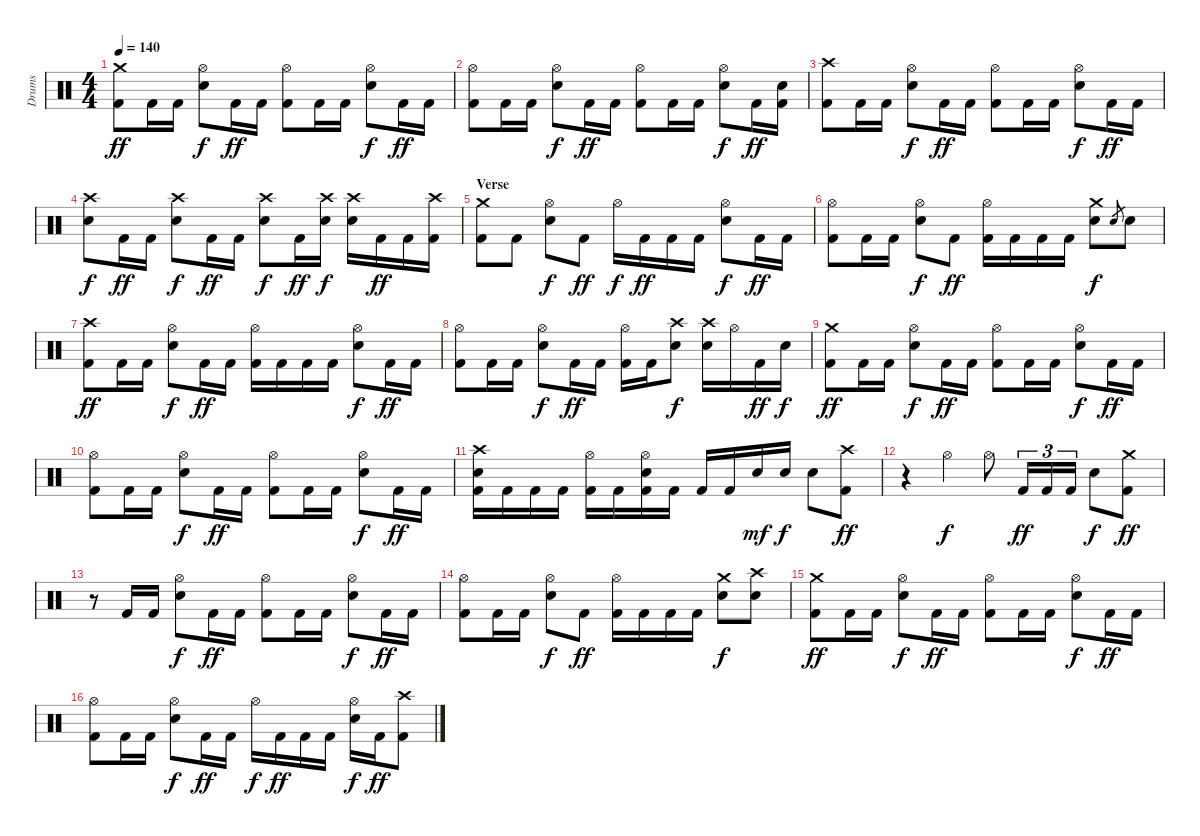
\track ("Drums" "Drums") {instrument percussion}
\staff {score}
\articulation defaults
\ts (4 4)
\tempo 140
\clef neutral
\ks c
("Crash medium (hit)" "Kick (hit) 2").8{dy ff} "Kick (hit) 2".16 "Kick (hit) 2".16 ("Hi-Hat (open)" "Snare (hit) 2").8{dy f} "Kick (hit) 2".16{dy ff} "Kick (hit) 2".16 ("Hi-Hat (open)" "Kick (hit) 2").8 "Kick (hit) 2".16 "Kick (hit) 2".16 ("Hi-Hat (open)" "Snare (hit) 2").8{dy f} "Kick (hit) 2".16{dy ff} "Kick (hit) 2".16 |
("Hi-Hat (open)" "Kick (hit) 2").8 "Kick (hit) 2".16 "Kick (hit) 2".16 ("Hi-Hat (open)" "Snare (hit) 2").8{dy f} "Kick (hit) 2".16{dy ff} "Kick (hit) 2".16 ("Hi-Hat (open)" "Kick (hit) 2").8 "Kick (hit) 2".16 "Kick (hit) 2".16 ("Hi-Hat (open)" "Snare (hit) 2").8{dy f} "Kick (hit) 2".16{dy ff} ("Snare (hit) 2" "Kick (hit) 2").16 |
("Crash high (hit)" "Kick (hit) 2").8 "Kick (hit) 2".16 "Kick (hit) 2".16 ("Hi-Hat (open)" "Snare (hit) 2").8{dy f} "Kick (hit) 2".16{dy ff} "Kick (hit) 2".16 ("Hi-Hat (open)" "Kick (hit) 2").8 "Kick (hit) 2".16 "Kick (hit) 2".16 ("Hi-Hat (open)" "Snare (hit) 2").8{dy f} "Kick (hit) 2".16{dy ff} "Kick (hit) 2".16 |
("Crash high (hit)" "Snare (hit) 2").8{dy f} "Kick (hit) 2".16{dy ff} "Kick (hit) 2".16 ("Crash high (hit)" "Snare (hit) 2").8{dy f} "Kick (hit) 2".16{dy ff} "Kick (hit) 2".16 ("Crash high (hit)" "Snare (hit) 2").8{dy f} "Kick (hit) 2".16{dy ff} ("Crash high (hit)" "Snare (hit) 2").16{dy f} ("Crash high (hit)" "Snare (hit) 2").16 "Kick (hit) 2".16{dy ff} "Kick (hit) 2".16 ("Crash high (hit)" "Kick (hit) 2").16 |
\section ("" "Verse")
("Crash medium (hit)" "Kick (hit) 2").8 "Kick (hit) 2".8 ("Hi-Hat (open)" "Snare (hit) 2").8{dy f} "Kick (hit) 2".8{dy ff} "Hi-Hat (open)".16{dy f} "Kick (hit) 2".16{dy ff} "Kick (hit) 2".16 "Kick (hit) 2".16 ("Hi-Hat (open)" "Snare (hit) 2").8{dy f} "Kick (hit) 2".16{dy ff} "Kick (hit) 2".16 |
("Hi-Hat (open)" "Kick (hit) 2").8 "Kick (hit) 2".16 "Kick (hit) 2".16 ("Hi-Hat (open)" "Snare (hit) 2").8{dy f} "Kick (hit) 2".8{dy ff} ("Hi-Hat (open)" "Kick (hit) 2").16 "Kick (hit) 2".16 "Kick (hit) 2".16 "Kick (hit) 2".16 ("Crash medium (hit)" "Snare (hit) 2").8{dy f} "Snare (hit) 2".8{gr} "Snare (hit) 2".8 |
("Crash high (hit)" "Kick (hit) 2").8{dy ff} "Kick (hit) 2".16 "Kick (hit) 2".16 ("Hi-Hat (open)" "Snare (hit) 2").8{dy f} "Kick (hit) 2".16{dy ff} "Kick (hit) 2".16 ("Hi-Hat (open)" "Kick (hit) 2").16 "Kick (hit) 2".16 "Kick (hit) 2".16 "Kick (hit) 2".16 ("Hi-Hat (open)" "Snare (hit) 2").8{dy f} "Kick (hit) 2".16{dy ff} "Kick (hit) 2".16 |
("Hi-Hat (open)" "Kick (hit) 2").8 "Kick (hit) 2".16 "Kick (hit) 2".16 ("Hi-Hat (open)" "Snare (hit) 2").8{dy f} "Kick (hit) 2".16{dy ff} "Kick (hit) 2".16 ("Hi-Hat (open)" "Kick (hit) 2").16 "Kick (hit) 2".16 ("Crash high (hit)" "Snare (hit) 2").8{dy f} ("Crash high (hit)" "Snare (hit) 2").16 "Hi-Hat (open)".16 "Kick (hit) 2".16{dy ff} "Snare (hit) 2".16{dy f} |
("Crash medium (hit)" "Kick (hit) 2").8{dy ff} "Kick (hit) 2".16 "Kick (hit) 2".16 ("Hi-Hat (open)" "Snare (hit) 2").8{dy f} "Kick (hit) 2".16{dy ff} "Kick (hit) 2".16 ("Hi-Hat (open)" "Kick (hit) 2").8 "Kick (hit) 2".16 "Kick (hit) 2".16 ("Hi-Hat (open)" "Snare (hit) 2").8{dy f} "Kick (hit) 2".16{dy ff} "Kick (hit) 2".16 |
("Hi-Hat (open)" "Kick (hit) 2").8 "Kick (hit) 2".16 "Kick (hit) 2".16 ("Hi-Hat (open)" "Snare (hit) 2").8{dy f} "Kick (hit) 2".16{dy ff} "Kick (hit) 2".16 ("Hi-Hat (open)" "Kick (hit) 2").8 "Kick (hit) 2".16 "Kick (hit) 2".16 ("Hi-Hat (open)" "Snare (hit) 2").8{dy f} "Kick (hit) 2".16{dy ff} "Kick (hit) 2".16 |
("Crash high (hit)" "Snare (hit) 2" "Kick (hit) 2").16 "Kick (hit) 2".16 "Kick (hit) 2".16 "Kick (hit) 2".16 ("Hi-Hat (open)" "Kick (hit) 2").16 "Kick (hit) 2".16 ("Hi-Hat (open)" "Snare (hit) 2" "Kick (hit) 2").16 "Kick (hit) 2".16 "Kick (hit) 2".16 "Kick (hit) 2".16 "Snare (hit) 2".16{dy mf} "Snare (hit) 2".16{dy f} "Snare (hit) 2".8 ("Crash high (hit)" "Kick (hit) 2").8{dy ff} |
r.4 "Hi-Hat (open)".4{dy f} "Hi-Hat (open)".8 "Kick (hit) 2".16{tu (3 2) dy ff} "Kick (hit) 2".16{tu (3 2)} "Kick (hit) 2".16{tu (3 2)} "Snare (hit) 2".8{dy f} ("Crash medium (hit)" "Kick (hit) 2").8{dy ff} |
r.8 "Kick (hit) 2".16 "Kick (hit) 2".16 ("Hi-Hat (open)" "Snare (hit) 2").8{dy f} "Kick (hit) 2".16{dy ff} "Kick (hit) 2".16 ("Hi-Hat (open)" "Kick (hit) 2").8 "Kick (hit) 2".16 "Kick (hit) 2".16 ("Hi-Hat (open)" "Snare (hit) 2").8{dy f} "Kick (hit) 2".16{dy ff} "Kick (hit) 2".16 |
("Hi-Hat (open)" "Kick (hit) 2").8 "Kick (hit) 2".16 "Kick (hit) 2".16 ("Hi-Hat (open)" "Snare (hit) 2").8{dy f} "Kick (hit) 2".8{dy ff} ("Hi-Hat (open)" "Kick (hit) 2").16 "Kick (hit) 2".16 "Kick (hit) 2".16 "Kick (hit) 2".16 ("Crash medium (hit)" "Snare (hit) 2").8{dy f} ("Crash high (hit)" "Snare (hit) 2").8 |
("Crash medium (hit)" "Kick (hit) 2").8{dy ff} "Kick (hit) 2".16 "Kick (hit) 2".16 ("Hi-Hat (open)" "Snare (hit) 2").8{dy f} "Kick (hit) 2".16{dy ff} "Kick (hit) 2".16 ("Hi-Hat (open)" "Kick (hit) 2").8 "Kick (hit) 2".16 "Kick (hit) 2".16 ("Hi-Hat (open)" "Snare (hit) 2").8{dy f} "Kick (hit) 2".16{dy ff} "Kick (hit) 2".16 |
("Hi-Hat (open)" "Kick (hit) 2").8 "Kick (hit) 2".16 "Kick (hit) 2".16 ("Hi-Hat (open)" "Snare (hit) 2").8{dy f} "Kick (hit) 2".16{dy ff} "Kick (hit) 2".16 "Hi-Hat (open)".16{dy f} "Kick (hit) 2".16{dy ff} "Kick (hit) 2".16 "Kick (hit) 2".16 ("Hi-Hat (open)" "Snare (hit) 2").16{dy f} "Kick (hit) 2".16{dy ff} ("Crash high (hit)" "Kick (hit) 2").8
